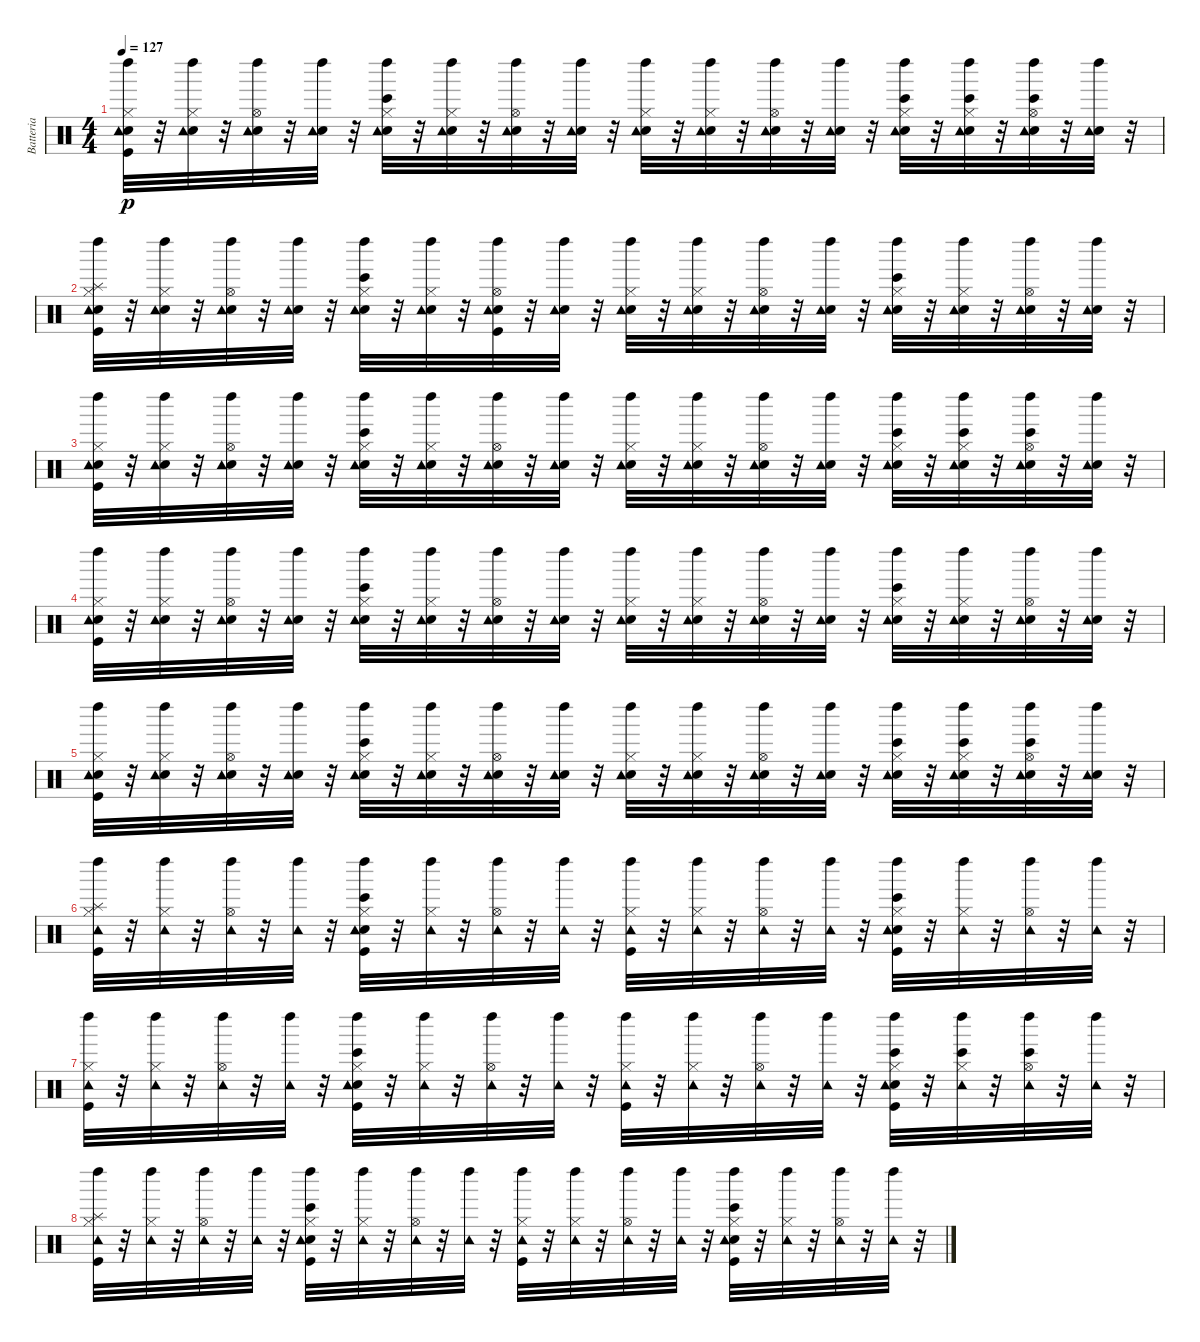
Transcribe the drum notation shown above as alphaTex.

\track ("Batteria" "Batteria") {instrument percussion}
\staff {score}
\articulation defaults
\ts (4 4)
\tempo 127
\clef neutral
\ks c
("Kick (hit)" "Electric Snare (hit)" "Hi-Hat (closed)" "Tambourine (hit)" "Left Maraca (hit)").32{dy p} r.32 ("Electric Snare (hit)" "Hi-Hat (closed)" "Tambourine (hit)" "Left Maraca (hit)").32 r.32 ("Electric Snare (hit)" "Hi-Hat (open)" "Tambourine (hit)" "Left Maraca (hit)").32 r.32 ("Electric Snare (hit)" "Tambourine (hit)" "Left Maraca (hit)").32 r.32 ("Bongo High (hit)" "Electric Snare (hit)" "Hi-Hat (closed)" "Tambourine (hit)" "Left Maraca (hit)").32 r.32 ("Electric Snare (hit)" "Hi-Hat (closed)" "Tambourine (hit)" "Left Maraca (hit)").32 r.32 ("Electric Snare (hit)" "Hi-Hat (open)" "Tambourine (hit)" "Left Maraca (hit)").32 r.32 ("Electric Snare (hit)" "Tambourine (hit)" "Left Maraca (hit)").32 r.32 ("Electric Snare (hit)" "Hi-Hat (closed)" "Tambourine (hit)" "Left Maraca (hit)").32 r.32 ("Electric Snare (hit)" "Hi-Hat (closed)" "Tambourine (hit)" "Left Maraca (hit)").32 r.32 ("Electric Snare (hit)" "Hi-Hat (open)" "Tambourine (hit)" "Left Maraca (hit)").32 r.32 ("Electric Snare (hit)" "Tambourine (hit)" "Left Maraca (hit)").32 r.32 ("Bongo High (hit)" "Electric Snare (hit)" "Hi-Hat (closed)" "Tambourine (hit)" "Left Maraca (hit)").32 r.32 ("Bongo High (hit)" "Electric Snare (hit)" "Hi-Hat (closed)" "Tambourine (hit)" "Left Maraca (hit)").32 r.32 ("Bongo High (hit)" "Electric Snare (hit)" "Hi-Hat (open)" "Tambourine (hit)" "Left Maraca (hit)").32 r.32 ("Electric Snare (hit)" "Tambourine (hit)" "Left Maraca (hit)").32 r.32 |
("Kick (hit)" "Electric Snare (hit)" "Hi-Hat (closed)" "Tambourine (hit)" "Splash (hit)" "Left Maraca (hit)").32 r.32 ("Electric Snare (hit)" "Hi-Hat (closed)" "Tambourine (hit)" "Left Maraca (hit)").32 r.32 ("Electric Snare (hit)" "Hi-Hat (open)" "Tambourine (hit)" "Left Maraca (hit)").32 r.32 ("Electric Snare (hit)" "Tambourine (hit)" "Left Maraca (hit)").32 r.32 ("Bongo High (hit)" "Electric Snare (hit)" "Hi-Hat (closed)" "Tambourine (hit)" "Left Maraca (hit)").32 r.32 ("Electric Snare (hit)" "Hi-Hat (closed)" "Tambourine (hit)" "Left Maraca (hit)").32 r.32 ("Kick (hit)" "Electric Snare (hit)" "Hi-Hat (open)" "Tambourine (hit)" "Left Maraca (hit)").32 r.32 ("Electric Snare (hit)" "Tambourine (hit)" "Left Maraca (hit)").32 r.32 ("Electric Snare (hit)" "Hi-Hat (closed)" "Tambourine (hit)" "Left Maraca (hit)").32 r.32 ("Electric Snare (hit)" "Hi-Hat (closed)" "Tambourine (hit)" "Left Maraca (hit)").32 r.32 ("Electric Snare (hit)" "Hi-Hat (open)" "Tambourine (hit)" "Left Maraca (hit)").32 r.32 ("Electric Snare (hit)" "Tambourine (hit)" "Left Maraca (hit)").32 r.32 ("Bongo High (hit)" "Electric Snare (hit)" "Hi-Hat (closed)" "Tambourine (hit)" "Left Maraca (hit)").32 r.32 ("Electric Snare (hit)" "Hi-Hat (closed)" "Tambourine (hit)" "Left Maraca (hit)").32 r.32 ("Electric Snare (hit)" "Hi-Hat (open)" "Tambourine (hit)" "Left Maraca (hit)").32 r.32 ("Electric Snare (hit)" "Tambourine (hit)" "Left Maraca (hit)").32 r.32 |
("Kick (hit)" "Electric Snare (hit)" "Hi-Hat (closed)" "Tambourine (hit)" "Left Maraca (hit)").32 r.32 ("Electric Snare (hit)" "Hi-Hat (closed)" "Tambourine (hit)" "Left Maraca (hit)").32 r.32 ("Electric Snare (hit)" "Hi-Hat (open)" "Tambourine (hit)" "Left Maraca (hit)").32 r.32 ("Electric Snare (hit)" "Tambourine (hit)" "Left Maraca (hit)").32 r.32 ("Bongo High (hit)" "Electric Snare (hit)" "Hi-Hat (closed)" "Tambourine (hit)" "Left Maraca (hit)").32 r.32 ("Electric Snare (hit)" "Hi-Hat (closed)" "Tambourine (hit)" "Left Maraca (hit)").32 r.32 ("Electric Snare (hit)" "Hi-Hat (open)" "Tambourine (hit)" "Left Maraca (hit)").32 r.32 ("Electric Snare (hit)" "Tambourine (hit)" "Left Maraca (hit)").32 r.32 ("Electric Snare (hit)" "Hi-Hat (closed)" "Tambourine (hit)" "Left Maraca (hit)").32 r.32 ("Electric Snare (hit)" "Hi-Hat (closed)" "Tambourine (hit)" "Left Maraca (hit)").32 r.32 ("Electric Snare (hit)" "Hi-Hat (open)" "Tambourine (hit)" "Left Maraca (hit)").32 r.32 ("Electric Snare (hit)" "Tambourine (hit)" "Left Maraca (hit)").32 r.32 ("Bongo High (hit)" "Electric Snare (hit)" "Hi-Hat (closed)" "Tambourine (hit)" "Left Maraca (hit)").32 r.32 ("Bongo High (hit)" "Electric Snare (hit)" "Hi-Hat (closed)" "Tambourine (hit)" "Left Maraca (hit)").32 r.32 ("Bongo High (hit)" "Electric Snare (hit)" "Hi-Hat (open)" "Tambourine (hit)" "Left Maraca (hit)").32 r.32 ("Electric Snare (hit)" "Tambourine (hit)" "Left Maraca (hit)").32 r.32 |
("Kick (hit)" "Electric Snare (hit)" "Hi-Hat (closed)" "Tambourine (hit)" "Left Maraca (hit)").32 r.32 ("Electric Snare (hit)" "Hi-Hat (closed)" "Tambourine (hit)" "Left Maraca (hit)").32 r.32 ("Electric Snare (hit)" "Hi-Hat (open)" "Tambourine (hit)" "Left Maraca (hit)").32 r.32 ("Electric Snare (hit)" "Tambourine (hit)" "Left Maraca (hit)").32 r.32 ("Bongo High (hit)" "Electric Snare (hit)" "Hi-Hat (closed)" "Tambourine (hit)" "Left Maraca (hit)").32 r.32 ("Electric Snare (hit)" "Hi-Hat (closed)" "Tambourine (hit)" "Left Maraca (hit)").32 r.32 ("Electric Snare (hit)" "Hi-Hat (open)" "Tambourine (hit)" "Left Maraca (hit)").32 r.32 ("Electric Snare (hit)" "Tambourine (hit)" "Left Maraca (hit)").32 r.32 ("Electric Snare (hit)" "Hi-Hat (closed)" "Tambourine (hit)" "Left Maraca (hit)").32 r.32 ("Electric Snare (hit)" "Hi-Hat (closed)" "Tambourine (hit)" "Left Maraca (hit)").32 r.32 ("Electric Snare (hit)" "Hi-Hat (open)" "Tambourine (hit)" "Left Maraca (hit)").32 r.32 ("Electric Snare (hit)" "Tambourine (hit)" "Left Maraca (hit)").32 r.32 ("Bongo High (hit)" "Electric Snare (hit)" "Hi-Hat (closed)" "Tambourine (hit)" "Left Maraca (hit)").32 r.32 ("Electric Snare (hit)" "Hi-Hat (closed)" "Tambourine (hit)" "Left Maraca (hit)").32 r.32 ("Electric Snare (hit)" "Hi-Hat (open)" "Tambourine (hit)" "Left Maraca (hit)").32 r.32 ("Electric Snare (hit)" "Tambourine (hit)" "Left Maraca (hit)").32 r.32 |
("Kick (hit)" "Electric Snare (hit)" "Hi-Hat (closed)" "Tambourine (hit)" "Left Maraca (hit)").32 r.32 ("Electric Snare (hit)" "Hi-Hat (closed)" "Tambourine (hit)" "Left Maraca (hit)").32 r.32 ("Electric Snare (hit)" "Hi-Hat (open)" "Tambourine (hit)" "Left Maraca (hit)").32 r.32 ("Electric Snare (hit)" "Tambourine (hit)" "Left Maraca (hit)").32 r.32 ("Bongo High (hit)" "Electric Snare (hit)" "Hi-Hat (closed)" "Tambourine (hit)" "Left Maraca (hit)").32 r.32 ("Electric Snare (hit)" "Hi-Hat (closed)" "Tambourine (hit)" "Left Maraca (hit)").32 r.32 ("Electric Snare (hit)" "Hi-Hat (open)" "Tambourine (hit)" "Left Maraca (hit)").32 r.32 ("Electric Snare (hit)" "Tambourine (hit)" "Left Maraca (hit)").32 r.32 ("Electric Snare (hit)" "Hi-Hat (closed)" "Tambourine (hit)" "Left Maraca (hit)").32 r.32 ("Electric Snare (hit)" "Hi-Hat (closed)" "Tambourine (hit)" "Left Maraca (hit)").32 r.32 ("Electric Snare (hit)" "Hi-Hat (open)" "Tambourine (hit)" "Left Maraca (hit)").32 r.32 ("Electric Snare (hit)" "Tambourine (hit)" "Left Maraca (hit)").32 r.32 ("Bongo High (hit)" "Electric Snare (hit)" "Hi-Hat (closed)" "Tambourine (hit)" "Left Maraca (hit)").32 r.32 ("Bongo High (hit)" "Electric Snare (hit)" "Hi-Hat (closed)" "Tambourine (hit)" "Left Maraca (hit)").32 r.32 ("Bongo High (hit)" "Electric Snare (hit)" "Hi-Hat (open)" "Tambourine (hit)" "Left Maraca (hit)").32 r.32 ("Electric Snare (hit)" "Tambourine (hit)" "Left Maraca (hit)").32 r.32 |
("Kick (hit)" "Hi-Hat (closed)" "Tambourine (hit)" "Splash (hit)" "Left Maraca (hit)").32 r.32 ("Hi-Hat (closed)" "Tambourine (hit)" "Left Maraca (hit)").32 r.32 ("Hi-Hat (open)" "Tambourine (hit)" "Left Maraca (hit)").32 r.32 ("Tambourine (hit)" "Left Maraca (hit)").32 r.32 ("Bongo High (hit)" "Kick (hit)" "Electric Snare (hit)" "Hi-Hat (closed)" "Tambourine (hit)" "Left Maraca (hit)").32 r.32 ("Hi-Hat (closed)" "Tambourine (hit)" "Left Maraca (hit)").32 r.32 ("Hi-Hat (open)" "Tambourine (hit)" "Left Maraca (hit)").32 r.32 ("Tambourine (hit)" "Left Maraca (hit)").32 r.32 ("Kick (hit)" "Hi-Hat (closed)" "Tambourine (hit)" "Left Maraca (hit)").32 r.32 ("Hi-Hat (closed)" "Tambourine (hit)" "Left Maraca (hit)").32 r.32 ("Hi-Hat (open)" "Tambourine (hit)" "Left Maraca (hit)").32 r.32 ("Tambourine (hit)" "Left Maraca (hit)").32 r.32 ("Bongo High (hit)" "Kick (hit)" "Electric Snare (hit)" "Hi-Hat (closed)" "Tambourine (hit)" "Left Maraca (hit)").32 r.32 ("Hi-Hat (closed)" "Tambourine (hit)" "Left Maraca (hit)").32 r.32 ("Hi-Hat (open)" "Tambourine (hit)" "Left Maraca (hit)").32 r.32 ("Tambourine (hit)" "Left Maraca (hit)").32 r.32 |
("Kick (hit)" "Hi-Hat (closed)" "Tambourine (hit)" "Left Maraca (hit)").32 r.32 ("Hi-Hat (closed)" "Tambourine (hit)" "Left Maraca (hit)").32 r.32 ("Hi-Hat (open)" "Tambourine (hit)" "Left Maraca (hit)").32 r.32 ("Tambourine (hit)" "Left Maraca (hit)").32 r.32 ("Bongo High (hit)" "Kick (hit)" "Electric Snare (hit)" "Hi-Hat (closed)" "Tambourine (hit)" "Left Maraca (hit)").32 r.32 ("Hi-Hat (closed)" "Tambourine (hit)" "Left Maraca (hit)").32 r.32 ("Hi-Hat (open)" "Tambourine (hit)" "Left Maraca (hit)").32 r.32 ("Tambourine (hit)" "Left Maraca (hit)").32 r.32 ("Kick (hit)" "Hi-Hat (closed)" "Tambourine (hit)" "Left Maraca (hit)").32 r.32 ("Hi-Hat (closed)" "Tambourine (hit)" "Left Maraca (hit)").32 r.32 ("Hi-Hat (open)" "Tambourine (hit)" "Left Maraca (hit)").32 r.32 ("Tambourine (hit)" "Left Maraca (hit)").32 r.32 ("Bongo High (hit)" "Kick (hit)" "Electric Snare (hit)" "Hi-Hat (closed)" "Tambourine (hit)" "Left Maraca (hit)").32 r.32 ("Bongo High (hit)" "Hi-Hat (closed)" "Tambourine (hit)" "Left Maraca (hit)").32 r.32 ("Bongo High (hit)" "Hi-Hat (open)" "Tambourine (hit)" "Left Maraca (hit)").32 r.32 ("Tambourine (hit)" "Left Maraca (hit)").32 r.32 |
("Kick (hit)" "Hi-Hat (closed)" "Tambourine (hit)" "Splash (hit)" "Left Maraca (hit)").32 r.32 ("Hi-Hat (closed)" "Tambourine (hit)" "Left Maraca (hit)").32 r.32 ("Hi-Hat (open)" "Tambourine (hit)" "Left Maraca (hit)").32 r.32 ("Tambourine (hit)" "Left Maraca (hit)").32 r.32 ("Bongo High (hit)" "Kick (hit)" "Electric Snare (hit)" "Hi-Hat (closed)" "Tambourine (hit)" "Left Maraca (hit)").32 r.32 ("Hi-Hat (closed)" "Tambourine (hit)" "Left Maraca (hit)").32 r.32 ("Hi-Hat (open)" "Tambourine (hit)" "Left Maraca (hit)").32 r.32 ("Tambourine (hit)" "Left Maraca (hit)").32 r.32 ("Kick (hit)" "Hi-Hat (closed)" "Tambourine (hit)" "Left Maraca (hit)").32 r.32 ("Hi-Hat (closed)" "Tambourine (hit)" "Left Maraca (hit)").32 r.32 ("Hi-Hat (open)" "Tambourine (hit)" "Left Maraca (hit)").32 r.32 ("Tambourine (hit)" "Left Maraca (hit)").32 r.32 ("Bongo High (hit)" "Kick (hit)" "Electric Snare (hit)" "Hi-Hat (closed)" "Tambourine (hit)" "Left Maraca (hit)").32 r.32 ("Hi-Hat (closed)" "Tambourine (hit)" "Left Maraca (hit)").32 r.32 ("Hi-Hat (open)" "Tambourine (hit)" "Left Maraca (hit)").32 r.32 ("Tambourine (hit)" "Left Maraca (hit)").32 r.32
